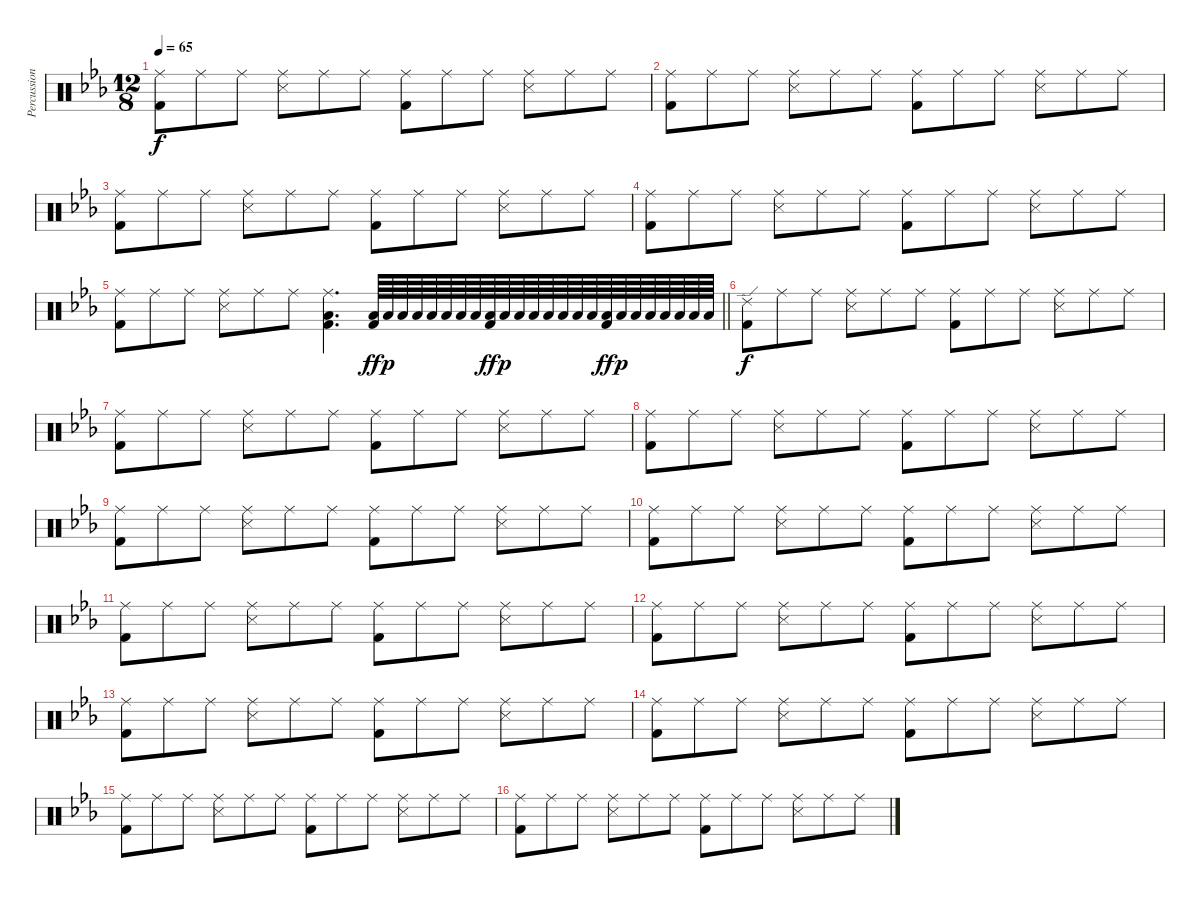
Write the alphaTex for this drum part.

\track ("Percussion" "Percussion") {instrument percussion}
\staff {score}
\articulation defaults
\ts (12 8)
\tempo 65
\clef neutral
\ks cminor
("Ride (middle)" "Kick (hit) 2").8{dy f} "Ride (middle)".8 "Ride (middle)".8 ("Ride (middle)" "Snare (side stick) 3").8 "Ride (middle)".8 "Ride (middle)".8 ("Ride (middle)" "Kick (hit) 2").8 "Ride (middle)".8 "Ride (middle)".8 ("Ride (middle)" "Snare (side stick) 3").8 "Ride (middle)".8 "Ride (middle)".8 |
("Ride (middle)" "Kick (hit) 2").8 "Ride (middle)".8 "Ride (middle)".8 ("Ride (middle)" "Snare (side stick) 3").8 "Ride (middle)".8 "Ride (middle)".8 ("Ride (middle)" "Kick (hit) 2").8 "Ride (middle)".8 "Ride (middle)".8 ("Ride (middle)" "Snare (side stick) 3").8 "Ride (middle)".8 "Ride (middle)".8 |
("Ride (middle)" "Kick (hit) 2").8 "Ride (middle)".8 "Ride (middle)".8 ("Ride (middle)" "Snare (side stick) 3").8 "Ride (middle)".8 "Ride (middle)".8 ("Ride (middle)" "Kick (hit) 2").8 "Ride (middle)".8 "Ride (middle)".8 ("Ride (middle)" "Snare (side stick) 3").8 "Ride (middle)".8 "Ride (middle)".8 |
("Ride (middle)" "Kick (hit) 2").8 "Ride (middle)".8 "Ride (middle)".8 ("Ride (middle)" "Snare (side stick) 3").8 "Ride (middle)".8 "Ride (middle)".8 ("Ride (middle)" "Kick (hit) 2").8 "Ride (middle)".8 "Ride (middle)".8 ("Ride (middle)" "Snare (side stick) 3").8 "Ride (middle)".8 "Ride (middle)".8 |
\barLineRight lightlight
("Ride (middle)" "Kick (hit) 2").8 "Ride (middle)".8 "Ride (middle)".8 ("Ride (middle)" "Snare (side stick) 3").8 "Ride (middle)".8 "Ride (middle)".8 ("Ride (middle)" "Low Floor Tom (hit)" "Kick (hit) 2").4{d} ("Low Floor Tom (hit)" "Kick (hit) 2").64{dy ff} "Low Floor Tom (hit)".64{dy p} "Low Floor Tom (hit)".64 "Low Floor Tom (hit)".64 "Low Floor Tom (hit)".64 "Low Floor Tom (hit)".64 "Low Floor Tom (hit)".64 "Low Floor Tom (hit)".64 ("Low Floor Tom (hit)" "Kick (hit) 2").64{dy ff} "Low Floor Tom (hit)".64{dy p} "Low Floor Tom (hit)".64 "Low Floor Tom (hit)".64 "Low Floor Tom (hit)".64 "Low Floor Tom (hit)".64 "Low Floor Tom (hit)".64 "Low Floor Tom (hit)".64 ("Low Floor Tom (hit)" "Kick (hit) 2").64{dy ff} "Low Floor Tom (hit)".64{dy p} "Low Floor Tom (hit)".64 "Low Floor Tom (hit)".64 "Low Floor Tom (hit)".64 "Low Floor Tom (hit)".64 "Low Floor Tom (hit)".64 "Low Floor Tom (hit)".64 |
("Ride (edge) 2" "Kick (hit) 2").8{dy f} "Ride (middle)".8 "Ride (middle)".8 ("Ride (middle)" "Snare (side stick) 3").8 "Ride (middle)".8 "Ride (middle)".8 ("Ride (middle)" "Kick (hit) 2").8 "Ride (middle)".8 "Ride (middle)".8 ("Ride (middle)" "Snare (side stick) 3").8 "Ride (middle)".8 "Ride (middle)".8 |
("Ride (middle)" "Kick (hit) 2").8 "Ride (middle)".8 "Ride (middle)".8 ("Ride (middle)" "Snare (side stick) 3").8 "Ride (middle)".8 "Ride (middle)".8 ("Ride (middle)" "Kick (hit) 2").8 "Ride (middle)".8 "Ride (middle)".8 ("Ride (middle)" "Snare (side stick) 3").8 "Ride (middle)".8 "Ride (middle)".8 |
("Ride (middle)" "Kick (hit) 2").8 "Ride (middle)".8 "Ride (middle)".8 ("Ride (middle)" "Snare (side stick) 3").8 "Ride (middle)".8 "Ride (middle)".8 ("Ride (middle)" "Kick (hit) 2").8 "Ride (middle)".8 "Ride (middle)".8 ("Ride (middle)" "Snare (side stick) 3").8 "Ride (middle)".8 "Ride (middle)".8 |
("Ride (middle)" "Kick (hit) 2").8 "Ride (middle)".8 "Ride (middle)".8 ("Ride (middle)" "Snare (side stick) 3").8 "Ride (middle)".8 "Ride (middle)".8 ("Ride (middle)" "Kick (hit) 2").8 "Ride (middle)".8 "Ride (middle)".8 ("Ride (middle)" "Snare (side stick) 3").8 "Ride (middle)".8 "Ride (middle)".8 |
("Ride (middle)" "Kick (hit) 2").8 "Ride (middle)".8 "Ride (middle)".8 ("Ride (middle)" "Snare (side stick) 3").8 "Ride (middle)".8 "Ride (middle)".8 ("Ride (middle)" "Kick (hit) 2").8 "Ride (middle)".8 "Ride (middle)".8 ("Ride (middle)" "Snare (side stick) 3").8 "Ride (middle)".8 "Ride (middle)".8 |
("Ride (middle)" "Kick (hit) 2").8 "Ride (middle)".8 "Ride (middle)".8 ("Ride (middle)" "Snare (side stick) 3").8 "Ride (middle)".8 "Ride (middle)".8 ("Ride (middle)" "Kick (hit) 2").8 "Ride (middle)".8 "Ride (middle)".8 ("Ride (middle)" "Snare (side stick) 3").8 "Ride (middle)".8 "Ride (middle)".8 |
("Ride (middle)" "Kick (hit) 2").8 "Ride (middle)".8 "Ride (middle)".8 ("Ride (middle)" "Snare (side stick) 3").8 "Ride (middle)".8 "Ride (middle)".8 ("Ride (middle)" "Kick (hit) 2").8 "Ride (middle)".8 "Ride (middle)".8 ("Ride (middle)" "Snare (side stick) 3").8 "Ride (middle)".8 "Ride (middle)".8 |
("Ride (middle)" "Kick (hit) 2").8 "Ride (middle)".8 "Ride (middle)".8 ("Ride (middle)" "Snare (side stick) 3").8 "Ride (middle)".8 "Ride (middle)".8 ("Ride (middle)" "Kick (hit) 2").8 "Ride (middle)".8 "Ride (middle)".8 ("Ride (middle)" "Snare (side stick) 3").8 "Ride (middle)".8 "Ride (middle)".8 |
("Ride (middle)" "Kick (hit) 2").8 "Ride (middle)".8 "Ride (middle)".8 ("Ride (middle)" "Snare (side stick) 3").8 "Ride (middle)".8 "Ride (middle)".8 ("Ride (middle)" "Kick (hit) 2").8 "Ride (middle)".8 "Ride (middle)".8 ("Ride (middle)" "Snare (side stick) 3").8 "Ride (middle)".8 "Ride (middle)".8 |
("Ride (middle)" "Kick (hit) 2").8 "Ride (middle)".8 "Ride (middle)".8 ("Ride (middle)" "Snare (side stick) 3").8 "Ride (middle)".8 "Ride (middle)".8 ("Ride (middle)" "Kick (hit) 2").8 "Ride (middle)".8 "Ride (middle)".8 ("Ride (middle)" "Snare (side stick) 3").8 "Ride (middle)".8 "Ride (middle)".8 |
("Ride (middle)" "Kick (hit) 2").8 "Ride (middle)".8 "Ride (middle)".8 ("Ride (middle)" "Snare (side stick) 3").8 "Ride (middle)".8 "Ride (middle)".8 ("Ride (middle)" "Kick (hit) 2").8 "Ride (middle)".8 "Ride (middle)".8 ("Ride (middle)" "Snare (side stick) 3").8 "Ride (middle)".8 "Ride (middle)".8
